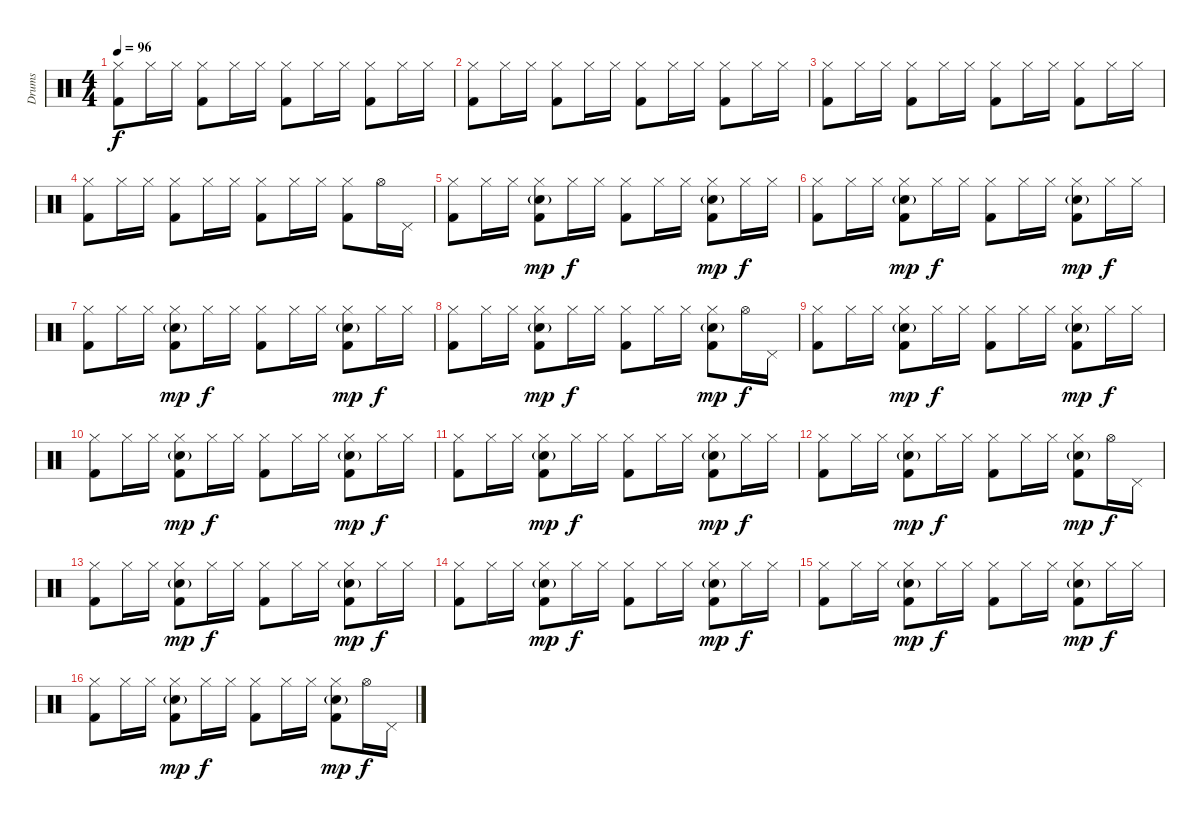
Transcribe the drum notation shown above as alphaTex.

\track ("Drums" "Drums") {instrument percussion}
\staff {score}
\articulation defaults
\ts (4 4)
\tempo 96
\clef neutral
\ks c
("Hi-Hat (closed)" "Kick (hit) 2").8{dy f} "Hi-Hat (closed)".16 "Hi-Hat (closed)".16 ("Hi-Hat (closed)" "Kick (hit) 2").8 "Hi-Hat (closed)".16 "Hi-Hat (closed)".16 ("Hi-Hat (closed)" "Kick (hit) 2").8 "Hi-Hat (closed)".16 "Hi-Hat (closed)".16 ("Hi-Hat (closed)" "Kick (hit) 2").8 "Hi-Hat (closed)".16 "Hi-Hat (closed)".16 |
("Hi-Hat (closed)" "Kick (hit) 2").8 "Hi-Hat (closed)".16 "Hi-Hat (closed)".16 ("Hi-Hat (closed)" "Kick (hit) 2").8 "Hi-Hat (closed)".16 "Hi-Hat (closed)".16 ("Hi-Hat (closed)" "Kick (hit) 2").8 "Hi-Hat (closed)".16 "Hi-Hat (closed)".16 ("Hi-Hat (closed)" "Kick (hit) 2").8 "Hi-Hat (closed)".16 "Hi-Hat (closed)".16 |
("Hi-Hat (closed)" "Kick (hit) 2").8 "Hi-Hat (closed)".16 "Hi-Hat (closed)".16 ("Hi-Hat (closed)" "Kick (hit) 2").8 "Hi-Hat (closed)".16 "Hi-Hat (closed)".16 ("Hi-Hat (closed)" "Kick (hit) 2").8 "Hi-Hat (closed)".16 "Hi-Hat (closed)".16 ("Hi-Hat (closed)" "Kick (hit) 2").8 "Hi-Hat (closed)".16 "Hi-Hat (closed)".16 |
("Hi-Hat (closed)" "Kick (hit) 2").8 "Hi-Hat (closed)".16 "Hi-Hat (closed)".16 ("Hi-Hat (closed)" "Kick (hit) 2").8 "Hi-Hat (closed)".16 "Hi-Hat (closed)".16 ("Hi-Hat (closed)" "Kick (hit) 2").8 "Hi-Hat (closed)".16 "Hi-Hat (closed)".16 ("Hi-Hat (closed)" "Kick (hit) 2").8 "Hi-Hat (open)".16 "Pedal Hi-Hat (hit)".16 |
("Hi-Hat (closed)" "Kick (hit) 2").8 "Hi-Hat (closed)".16 "Hi-Hat (closed)".16 ("Hi-Hat (closed)" "Snare (hit) 2"{g} "Kick (hit) 2").8{dy mp} "Hi-Hat (closed)".16{dy f} "Hi-Hat (closed)".16 ("Hi-Hat (closed)" "Kick (hit) 2").8 "Hi-Hat (closed)".16 "Hi-Hat (closed)".16 ("Hi-Hat (closed)" "Snare (hit) 2"{g} "Kick (hit) 2").8{dy mp} "Hi-Hat (closed)".16{dy f} "Hi-Hat (closed)".16 |
("Hi-Hat (closed)" "Kick (hit) 2").8 "Hi-Hat (closed)".16 "Hi-Hat (closed)".16 ("Hi-Hat (closed)" "Snare (hit) 2"{g} "Kick (hit) 2").8{dy mp} "Hi-Hat (closed)".16{dy f} "Hi-Hat (closed)".16 ("Hi-Hat (closed)" "Kick (hit) 2").8 "Hi-Hat (closed)".16 "Hi-Hat (closed)".16 ("Hi-Hat (closed)" "Snare (hit) 2"{g} "Kick (hit) 2").8{dy mp} "Hi-Hat (closed)".16{dy f} "Hi-Hat (closed)".16 |
("Hi-Hat (closed)" "Kick (hit) 2").8 "Hi-Hat (closed)".16 "Hi-Hat (closed)".16 ("Hi-Hat (closed)" "Snare (hit) 2"{g} "Kick (hit) 2").8{dy mp} "Hi-Hat (closed)".16{dy f} "Hi-Hat (closed)".16 ("Hi-Hat (closed)" "Kick (hit) 2").8 "Hi-Hat (closed)".16 "Hi-Hat (closed)".16 ("Hi-Hat (closed)" "Snare (hit) 2"{g} "Kick (hit) 2").8{dy mp} "Hi-Hat (closed)".16{dy f} "Hi-Hat (closed)".16 |
("Hi-Hat (closed)" "Kick (hit) 2").8 "Hi-Hat (closed)".16 "Hi-Hat (closed)".16 ("Hi-Hat (closed)" "Snare (hit) 2"{g} "Kick (hit) 2").8{dy mp} "Hi-Hat (closed)".16{dy f} "Hi-Hat (closed)".16 ("Hi-Hat (closed)" "Kick (hit) 2").8 "Hi-Hat (closed)".16 "Hi-Hat (closed)".16 ("Hi-Hat (closed)" "Snare (hit) 2"{g} "Kick (hit) 2").8{dy mp} "Hi-Hat (open)".16{dy f} "Pedal Hi-Hat (hit)".16 |
("Hi-Hat (closed)" "Kick (hit) 2").8 "Hi-Hat (closed)".16 "Hi-Hat (closed)".16 ("Hi-Hat (closed)" "Snare (hit) 2"{g} "Kick (hit) 2").8{dy mp} "Hi-Hat (closed)".16{dy f} "Hi-Hat (closed)".16 ("Hi-Hat (closed)" "Kick (hit) 2").8 "Hi-Hat (closed)".16 "Hi-Hat (closed)".16 ("Hi-Hat (closed)" "Snare (hit) 2"{g} "Kick (hit) 2").8{dy mp} "Hi-Hat (closed)".16{dy f} "Hi-Hat (closed)".16 |
("Hi-Hat (closed)" "Kick (hit) 2").8 "Hi-Hat (closed)".16 "Hi-Hat (closed)".16 ("Hi-Hat (closed)" "Snare (hit) 2"{g} "Kick (hit) 2").8{dy mp} "Hi-Hat (closed)".16{dy f} "Hi-Hat (closed)".16 ("Hi-Hat (closed)" "Kick (hit) 2").8 "Hi-Hat (closed)".16 "Hi-Hat (closed)".16 ("Hi-Hat (closed)" "Snare (hit) 2"{g} "Kick (hit) 2").8{dy mp} "Hi-Hat (closed)".16{dy f} "Hi-Hat (closed)".16 |
("Hi-Hat (closed)" "Kick (hit) 2").8 "Hi-Hat (closed)".16 "Hi-Hat (closed)".16 ("Hi-Hat (closed)" "Snare (hit) 2"{g} "Kick (hit) 2").8{dy mp} "Hi-Hat (closed)".16{dy f} "Hi-Hat (closed)".16 ("Hi-Hat (closed)" "Kick (hit) 2").8 "Hi-Hat (closed)".16 "Hi-Hat (closed)".16 ("Hi-Hat (closed)" "Snare (hit) 2"{g} "Kick (hit) 2").8{dy mp} "Hi-Hat (closed)".16{dy f} "Hi-Hat (closed)".16 |
("Hi-Hat (closed)" "Kick (hit) 2").8 "Hi-Hat (closed)".16 "Hi-Hat (closed)".16 ("Hi-Hat (closed)" "Snare (hit) 2"{g} "Kick (hit) 2").8{dy mp} "Hi-Hat (closed)".16{dy f} "Hi-Hat (closed)".16 ("Hi-Hat (closed)" "Kick (hit) 2").8 "Hi-Hat (closed)".16 "Hi-Hat (closed)".16 ("Hi-Hat (closed)" "Snare (hit) 2"{g} "Kick (hit) 2").8{dy mp} "Hi-Hat (open)".16{dy f} "Pedal Hi-Hat (hit)".16 |
("Hi-Hat (closed)" "Kick (hit) 2").8 "Hi-Hat (closed)".16 "Hi-Hat (closed)".16 ("Hi-Hat (closed)" "Snare (hit) 2"{g} "Kick (hit) 2").8{dy mp} "Hi-Hat (closed)".16{dy f} "Hi-Hat (closed)".16 ("Hi-Hat (closed)" "Kick (hit) 2").8 "Hi-Hat (closed)".16 "Hi-Hat (closed)".16 ("Hi-Hat (closed)" "Snare (hit) 2"{g} "Kick (hit) 2").8{dy mp} "Hi-Hat (closed)".16{dy f} "Hi-Hat (closed)".16 |
("Hi-Hat (closed)" "Kick (hit) 2").8 "Hi-Hat (closed)".16 "Hi-Hat (closed)".16 ("Hi-Hat (closed)" "Snare (hit) 2"{g} "Kick (hit) 2").8{dy mp} "Hi-Hat (closed)".16{dy f} "Hi-Hat (closed)".16 ("Hi-Hat (closed)" "Kick (hit) 2").8 "Hi-Hat (closed)".16 "Hi-Hat (closed)".16 ("Hi-Hat (closed)" "Snare (hit) 2"{g} "Kick (hit) 2").8{dy mp} "Hi-Hat (closed)".16{dy f} "Hi-Hat (closed)".16 |
("Hi-Hat (closed)" "Kick (hit) 2").8 "Hi-Hat (closed)".16 "Hi-Hat (closed)".16 ("Hi-Hat (closed)" "Snare (hit) 2"{g} "Kick (hit) 2").8{dy mp} "Hi-Hat (closed)".16{dy f} "Hi-Hat (closed)".16 ("Hi-Hat (closed)" "Kick (hit) 2").8 "Hi-Hat (closed)".16 "Hi-Hat (closed)".16 ("Hi-Hat (closed)" "Snare (hit) 2"{g} "Kick (hit) 2").8{dy mp} "Hi-Hat (closed)".16{dy f} "Hi-Hat (closed)".16 |
("Hi-Hat (closed)" "Kick (hit) 2").8 "Hi-Hat (closed)".16 "Hi-Hat (closed)".16 ("Hi-Hat (closed)" "Snare (hit) 2"{g} "Kick (hit) 2").8{dy mp} "Hi-Hat (closed)".16{dy f} "Hi-Hat (closed)".16 ("Hi-Hat (closed)" "Kick (hit) 2").8 "Hi-Hat (closed)".16 "Hi-Hat (closed)".16 ("Hi-Hat (closed)" "Snare (hit) 2"{g} "Kick (hit) 2").8{dy mp} "Hi-Hat (open)".16{dy f} "Pedal Hi-Hat (hit)".16
